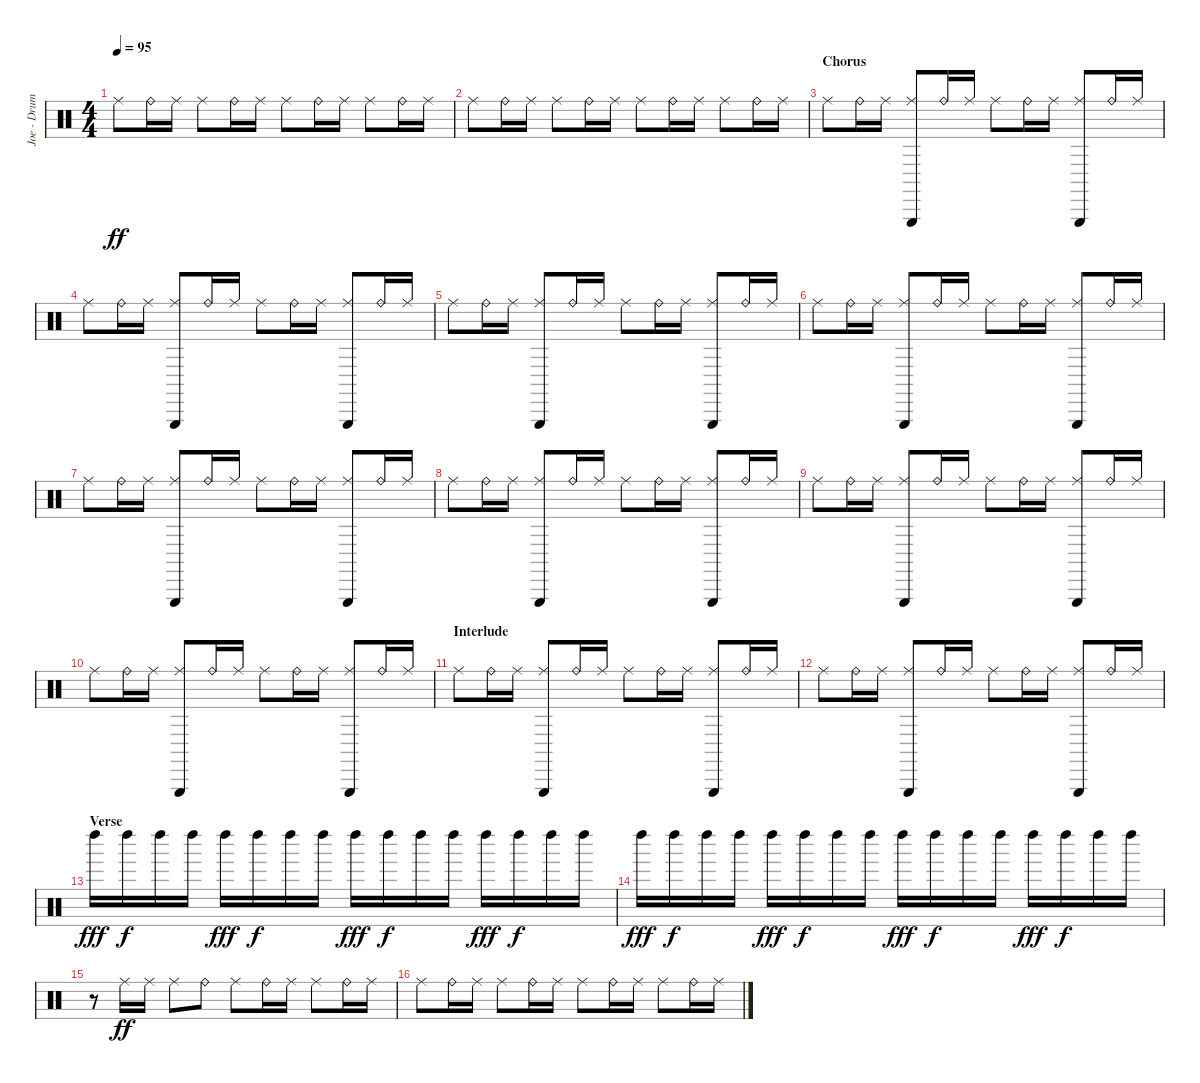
\track ("Joe - Drums samples" "Joe - Drum") {instrument percussion}
\staff {score}
\articulation defaults
\ts (4 4)
\tempo 95
\clef neutral
\ks c "Ride (middle)".8{dy ff} "Ride (bell)".16 "Ride (middle)".16 "Ride (middle)".8 "Ride (bell)".16 "Ride (middle)".16 "Ride (middle)".8 "Ride (bell)".16 "Ride (middle)".16 "Ride (middle)".8 "Ride (bell)".16 "Ride (middle)".16
|
"Ride (middle)".8 "Ride (bell)".16 "Ride (middle)".16 "Ride (middle)".8 "Ride (bell)".16 "Ride (middle)".16 "Ride (middle)".8 "Ride (bell)".16 "Ride (middle)".16 "Ride (middle)".8 "Ride (bell)".16 "Ride (middle)".16 |
\section ("" "Chorus")
"Ride (middle)".8 "Ride (bell)".16 "Ride (middle)".16 ("Triangle (hit)" "Ride (middle)").8 "Ride (bell)".16 "Ride (middle)".16 "Ride (middle)".8 "Ride (bell)".16 "Ride (middle)".16 ("Triangle (hit)" "Ride (middle)").8 "Ride (bell)".16 "Ride (middle)".16 |
"Ride (middle)".8 "Ride (bell)".16 "Ride (middle)".16 ("Triangle (hit)" "Ride (middle)").8 "Ride (bell)".16 "Ride (middle)".16 "Ride (middle)".8 "Ride (bell)".16 "Ride (middle)".16 ("Triangle (hit)" "Ride (middle)").8 "Ride (bell)".16 "Ride (middle)".16 |
"Ride (middle)".8 "Ride (bell)".16 "Ride (middle)".16 ("Triangle (hit)" "Ride (middle)").8 "Ride (bell)".16 "Ride (middle)".16 "Ride (middle)".8 "Ride (bell)".16 "Ride (middle)".16 ("Triangle (hit)" "Ride (middle)").8 "Ride (bell)".16 "Ride (middle)".16 |
"Ride (middle)".8 "Ride (bell)".16 "Ride (middle)".16 ("Triangle (hit)" "Ride (middle)").8 "Ride (bell)".16 "Ride (middle)".16 "Ride (middle)".8 "Ride (bell)".16 "Ride (middle)".16 ("Triangle (hit)" "Ride (middle)").8 "Ride (bell)".16 "Ride (middle)".16 |
"Ride (middle)".8 "Ride (bell)".16 "Ride (middle)".16 ("Triangle (hit)" "Ride (middle)").8 "Ride (bell)".16 "Ride (middle)".16 "Ride (middle)".8 "Ride (bell)".16 "Ride (middle)".16 ("Triangle (hit)" "Ride (middle)").8 "Ride (bell)".16 "Ride (middle)".16 |
"Ride (middle)".8 "Ride (bell)".16 "Ride (middle)".16 ("Triangle (hit)" "Ride (middle)").8 "Ride (bell)".16 "Ride (middle)".16 "Ride (middle)".8 "Ride (bell)".16 "Ride (middle)".16 ("Triangle (hit)" "Ride (middle)").8 "Ride (bell)".16 "Ride (middle)".16 |
"Ride (middle)".8 "Ride (bell)".16 "Ride (middle)".16 ("Triangle (hit)" "Ride (middle)").8 "Ride (bell)".16 "Ride (middle)".16 "Ride (middle)".8 "Ride (bell)".16 "Ride (middle)".16 ("Triangle (hit)" "Ride (middle)").8 "Ride (bell)".16 "Ride (middle)".16 |
"Ride (middle)".8 "Ride (bell)".16 "Ride (middle)".16 ("Triangle (hit)" "Ride (middle)").8 "Ride (bell)".16 "Ride (middle)".16 "Ride (middle)".8 "Ride (bell)".16 "Ride (middle)".16 ("Triangle (hit)" "Ride (middle)").8 "Ride (bell)".16 "Ride (middle)".16 |
\section ("" "Interlude")
"Ride (middle)".8 "Ride (bell)".16 "Ride (middle)".16 ("Triangle (hit)" "Ride (middle)").8 "Ride (bell)".16 "Ride (middle)".16 "Ride (middle)".8 "Ride (bell)".16 "Ride (middle)".16 ("Triangle (hit)" "Ride (middle)").8 "Ride (bell)".16 "Ride (middle)".16 |
"Ride (middle)".8 "Ride (bell)".16 "Ride (middle)".16 ("Triangle (hit)" "Ride (middle)").8 "Ride (bell)".16 "Ride (middle)".16 "Ride (middle)".8 "Ride (bell)".16 "Ride (middle)".16 ("Triangle (hit)" "Ride (middle)").8 "Ride (bell)".16 "Ride (middle)".16 |
\section ("" "Verse")
"Left Maraca (hit)".16{dy fff} "Left Maraca (hit)".16{dy f} "Left Maraca (hit)".16 "Left Maraca (hit)".16 "Left Maraca (hit)".16{dy fff} "Left Maraca (hit)".16{dy f} "Left Maraca (hit)".16 "Left Maraca (hit)".16 "Left Maraca (hit)".16{dy fff} "Left Maraca (hit)".16{dy f} "Left Maraca (hit)".16 "Left Maraca (hit)".16 "Left Maraca (hit)".16{dy fff} "Left Maraca (hit)".16{dy f} "Left Maraca (hit)".16 "Left Maraca (hit)".16 |
"Left Maraca (hit)".16{dy fff} "Left Maraca (hit)".16{dy f} "Left Maraca (hit)".16 "Left Maraca (hit)".16 "Left Maraca (hit)".16{dy fff} "Left Maraca (hit)".16{dy f} "Left Maraca (hit)".16 "Left Maraca (hit)".16 "Left Maraca (hit)".16{dy fff} "Left Maraca (hit)".16{dy f} "Left Maraca (hit)".16 "Left Maraca (hit)".16 "Left Maraca (hit)".16{dy fff} "Left Maraca (hit)".16{dy f} "Left Maraca (hit)".16 "Left Maraca (hit)".16 |
r.8 "Ride (middle)".16{dy ff} "Ride (middle)".16 "Ride (middle)".8 "Ride (bell)".8 "Ride (middle)".8 "Ride (bell)".16 "Ride (middle)".16 "Ride (middle)".8 "Ride (bell)".16 "Ride (middle)".16 |
"Ride (middle)".8 "Ride (bell)".16 "Ride (middle)".16 "Ride (middle)".8 "Ride (bell)".16 "Ride (middle)".16 "Ride (middle)".8 "Ride (bell)".16 "Ride (middle)".16 "Ride (middle)".8 "Ride (bell)".16 "Ride (middle)".16
